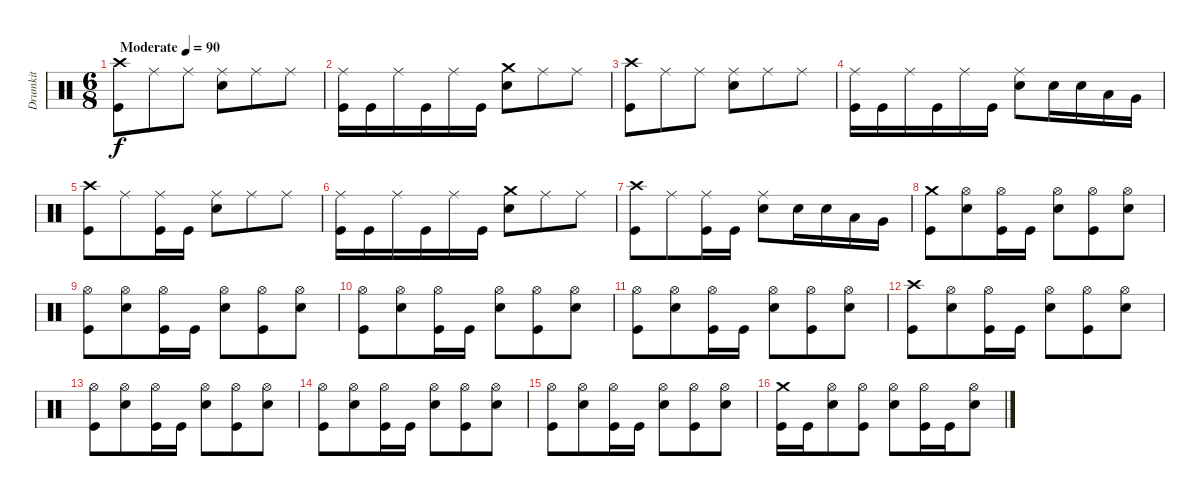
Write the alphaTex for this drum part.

\track ("Drumkit" "Drumkit") {instrument percussion}
\staff {score}
\articulation defaults
\ts (6 8)
\tempo (90 "Moderate")
\clef neutral
\ks c
("Crash high (hit)" "Kick (hit)").8{dy f} "Ride (middle)".8 "Ride (middle)".8 ("Ride (middle)" "Snare (hit) 2").8 "Ride (middle)".8 "Ride (middle)".8 |
("Ride (middle)" "Kick (hit)").16 "Kick (hit)".16 "Ride (middle)".16 "Kick (hit)".16 "Ride (middle)".16 "Kick (hit)".16 ("Crash medium (hit)" "Snare (hit) 2").8 "Ride (middle)".8 "Ride (middle)".8 |
("Crash high (hit)" "Kick (hit)").8 "Ride (middle)".8 "Ride (middle)".8 ("Ride (middle)" "Snare (hit) 2").8 "Ride (middle)".8 "Ride (middle)".8 |
("Ride (middle)" "Kick (hit)").16 "Kick (hit)".16 "Ride (middle)".16 "Kick (hit)".16 "Ride (middle)".16 "Kick (hit)".16 ("Ride (middle)" "Snare (hit) 2").8 "Snare (hit) 2".16 "Snare (hit) 2".16 "Low Tom (hit)".16 "Very Low Tom (hit)".16 |
("Crash high (hit)" "Kick (hit)").8 "Ride (middle)".8 ("Ride (middle)" "Kick (hit)").16 "Kick (hit)".16 ("Ride (middle)" "Snare (hit) 2").8 "Ride (middle)".8 "Ride (middle)".8 |
("Ride (middle)" "Kick (hit)").16 "Kick (hit)".16 "Ride (middle)".16 "Kick (hit)".16 "Ride (middle)".16 "Kick (hit)".16 ("Crash medium (hit)" "Snare (hit) 2").8 "Ride (middle)".8 "Ride (middle)".8 |
("Crash high (hit)" "Kick (hit)").8 "Ride (middle)".8 ("Ride (middle)" "Kick (hit)").16 "Kick (hit)".16 ("Ride (middle)" "Snare (hit) 2").8 "Snare (hit) 2".16 "Snare (hit) 2".16 "Low Tom (hit)".16 "Very Low Tom (hit)".16 |
("Crash medium (hit)" "Kick (hit)").8 ("Hi-Hat (open)" "Snare (hit) 2").8 ("Hi-Hat (open)" "Kick (hit)").16 "Kick (hit)".16 ("Hi-Hat (open)" "Snare (hit) 2").8 ("Hi-Hat (open)" "Kick (hit)").8 ("Hi-Hat (open)" "Snare (hit) 2").8 |
("Hi-Hat (open)" "Kick (hit)").8 ("Hi-Hat (open)" "Snare (hit) 2").8 ("Hi-Hat (open)" "Kick (hit)").16 "Kick (hit)".16 ("Hi-Hat (open)" "Snare (hit) 2").8 ("Hi-Hat (open)" "Kick (hit)").8 ("Hi-Hat (open)" "Snare (hit) 2").8 |
("Hi-Hat (open)" "Kick (hit)").8 ("Hi-Hat (open)" "Snare (hit) 2").8 ("Hi-Hat (open)" "Kick (hit)").16 "Kick (hit)".16 ("Hi-Hat (open)" "Snare (hit) 2").8 ("Hi-Hat (open)" "Kick (hit)").8 ("Hi-Hat (open)" "Snare (hit) 2").8 |
("Hi-Hat (open)" "Kick (hit)").8 ("Hi-Hat (open)" "Snare (hit) 2").8 ("Hi-Hat (open)" "Kick (hit)").16 "Kick (hit)".16 ("Hi-Hat (open)" "Snare (hit) 2").8 ("Hi-Hat (open)" "Kick (hit)").8 ("Hi-Hat (open)" "Snare (hit) 2").8 |
("Crash high (hit)" "Kick (hit)").8 ("Hi-Hat (open)" "Snare (hit) 2").8 ("Hi-Hat (open)" "Kick (hit)").16 "Kick (hit)".16 ("Hi-Hat (open)" "Snare (hit) 2").8 ("Hi-Hat (open)" "Kick (hit)").8 ("Hi-Hat (open)" "Snare (hit) 2").8 |
("Hi-Hat (open)" "Kick (hit)").8 ("Hi-Hat (open)" "Snare (hit) 2").8 ("Hi-Hat (open)" "Kick (hit)").16 "Kick (hit)".16 ("Hi-Hat (open)" "Snare (hit) 2").8 ("Hi-Hat (open)" "Kick (hit)").8 ("Hi-Hat (open)" "Snare (hit) 2").8 |
("Hi-Hat (open)" "Kick (hit)").8 ("Hi-Hat (open)" "Snare (hit) 2").8 ("Hi-Hat (open)" "Kick (hit)").16 "Kick (hit)".16 ("Hi-Hat (open)" "Snare (hit) 2").8 ("Hi-Hat (open)" "Kick (hit)").8 ("Hi-Hat (open)" "Snare (hit) 2").8 |
("Hi-Hat (open)" "Kick (hit)").8 ("Hi-Hat (open)" "Snare (hit) 2").8 ("Hi-Hat (open)" "Kick (hit)").16 "Kick (hit)".16 ("Hi-Hat (open)" "Snare (hit) 2").8 ("Hi-Hat (open)" "Kick (hit)").8 ("Hi-Hat (open)" "Snare (hit) 2").8 |
("Crash medium (hit)" "Kick (hit)").16 "Kick (hit)".16 ("Hi-Hat (open)" "Snare (hit) 2").8 ("Hi-Hat (open)" "Kick (hit)").8 ("Hi-Hat (open)" "Snare (hit) 2").8 ("Hi-Hat (open)" "Kick (hit)").16 "Kick (hit)".16 ("Hi-Hat (open)" "Snare (hit) 2").8
